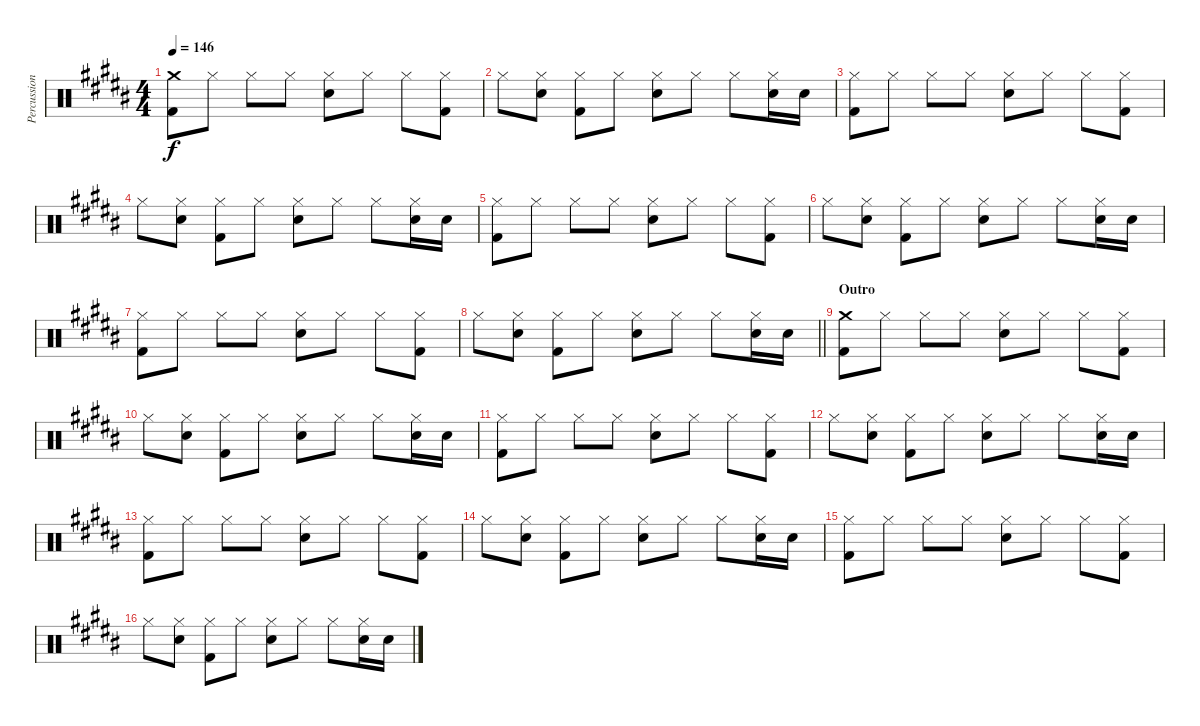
\track ("Percussion" "Percussion") {instrument percussion}
\staff {score}
\articulation defaults
\ts (4 4)
\tempo 146
\clef neutral
\ks b
("Crash medium (hit)" "Kick (hit) 2").8{dy f} "Hi-Hat (closed)".8 "Hi-Hat (closed)".8 "Hi-Hat (closed)".8 ("Hi-Hat (closed)" "Snare (hit) 2").8 "Hi-Hat (closed)".8 "Hi-Hat (closed)".8 ("Hi-Hat (closed)" "Kick (hit) 2").8 |
"Hi-Hat (closed)".8 ("Hi-Hat (closed)" "Snare (hit) 2").8 ("Hi-Hat (closed)" "Kick (hit) 2").8 "Hi-Hat (closed)".8 ("Hi-Hat (closed)" "Snare (hit) 2").8 "Hi-Hat (closed)".8 "Hi-Hat (closed)".8 ("Hi-Hat (closed)" "Snare (hit) 2").16 "Snare (hit) 2".16 |
("Hi-Hat (closed)" "Kick (hit) 2").8 "Hi-Hat (closed)".8 "Hi-Hat (closed)".8 "Hi-Hat (closed)".8 ("Hi-Hat (closed)" "Snare (hit) 2").8 "Hi-Hat (closed)".8 "Hi-Hat (closed)".8 ("Hi-Hat (closed)" "Kick (hit) 2").8 |
"Hi-Hat (closed)".8 ("Hi-Hat (closed)" "Snare (hit) 2").8 ("Hi-Hat (closed)" "Kick (hit) 2").8 "Hi-Hat (closed)".8 ("Hi-Hat (closed)" "Snare (hit) 2").8 "Hi-Hat (closed)".8 "Hi-Hat (closed)".8 ("Hi-Hat (closed)" "Snare (hit) 2").16 "Snare (hit) 2".16 |
("Hi-Hat (closed)" "Kick (hit) 2").8 "Hi-Hat (closed)".8 "Hi-Hat (closed)".8 "Hi-Hat (closed)".8 ("Hi-Hat (closed)" "Snare (hit) 2").8 "Hi-Hat (closed)".8 "Hi-Hat (closed)".8 ("Hi-Hat (closed)" "Kick (hit) 2").8 |
"Hi-Hat (closed)".8 ("Hi-Hat (closed)" "Snare (hit) 2").8 ("Hi-Hat (closed)" "Kick (hit) 2").8 "Hi-Hat (closed)".8 ("Hi-Hat (closed)" "Snare (hit) 2").8 "Hi-Hat (closed)".8 "Hi-Hat (closed)".8 ("Hi-Hat (closed)" "Snare (hit) 2").16 "Snare (hit) 2".16 |
("Hi-Hat (closed)" "Kick (hit) 2").8 "Hi-Hat (closed)".8 "Hi-Hat (closed)".8 "Hi-Hat (closed)".8 ("Hi-Hat (closed)" "Snare (hit) 2").8 "Hi-Hat (closed)".8 "Hi-Hat (closed)".8 ("Hi-Hat (closed)" "Kick (hit) 2").8 |
\barLineRight lightlight "Hi-Hat (closed)".8
("Hi-Hat (closed)" "Snare (hit) 2").8 ("Hi-Hat (closed)" "Kick (hit) 2").8 "Hi-Hat (closed)".8 ("Hi-Hat (closed)" "Snare (hit) 2").8 "Hi-Hat (closed)".8 "Hi-Hat (closed)".8 ("Hi-Hat (closed)" "Snare (hit) 2").16 "Snare (hit) 2".16 |
\section ("" "Outro")
("Crash medium (hit)" "Kick (hit) 2").8 "Hi-Hat (closed)".8 "Hi-Hat (closed)".8 "Hi-Hat (closed)".8 ("Hi-Hat (closed)" "Snare (hit) 2").8 "Hi-Hat (closed)".8 "Hi-Hat (closed)".8 ("Hi-Hat (closed)" "Kick (hit) 2").8 |
"Hi-Hat (closed)".8 ("Hi-Hat (closed)" "Snare (hit) 2").8 ("Hi-Hat (closed)" "Kick (hit) 2").8 "Hi-Hat (closed)".8 ("Hi-Hat (closed)" "Snare (hit) 2").8 "Hi-Hat (closed)".8 "Hi-Hat (closed)".8 ("Hi-Hat (closed)" "Snare (hit) 2").16 "Snare (hit) 2".16 |
("Hi-Hat (closed)" "Kick (hit) 2").8 "Hi-Hat (closed)".8 "Hi-Hat (closed)".8 "Hi-Hat (closed)".8 ("Hi-Hat (closed)" "Snare (hit) 2").8 "Hi-Hat (closed)".8 "Hi-Hat (closed)".8 ("Hi-Hat (closed)" "Kick (hit) 2").8 |
"Hi-Hat (closed)".8 ("Hi-Hat (closed)" "Snare (hit) 2").8 ("Hi-Hat (closed)" "Kick (hit) 2").8 "Hi-Hat (closed)".8 ("Hi-Hat (closed)" "Snare (hit) 2").8 "Hi-Hat (closed)".8 "Hi-Hat (closed)".8 ("Hi-Hat (closed)" "Snare (hit) 2").16 "Snare (hit) 2".16 |
("Hi-Hat (closed)" "Kick (hit) 2").8 "Hi-Hat (closed)".8 "Hi-Hat (closed)".8 "Hi-Hat (closed)".8 ("Hi-Hat (closed)" "Snare (hit) 2").8 "Hi-Hat (closed)".8 "Hi-Hat (closed)".8 ("Hi-Hat (closed)" "Kick (hit) 2").8 |
"Hi-Hat (closed)".8 ("Hi-Hat (closed)" "Snare (hit) 2").8 ("Hi-Hat (closed)" "Kick (hit) 2").8 "Hi-Hat (closed)".8 ("Hi-Hat (closed)" "Snare (hit) 2").8 "Hi-Hat (closed)".8 "Hi-Hat (closed)".8 ("Hi-Hat (closed)" "Snare (hit) 2").16 "Snare (hit) 2".16 |
("Hi-Hat (closed)" "Kick (hit) 2").8 "Hi-Hat (closed)".8 "Hi-Hat (closed)".8 "Hi-Hat (closed)".8 ("Hi-Hat (closed)" "Snare (hit) 2").8 "Hi-Hat (closed)".8 "Hi-Hat (closed)".8 ("Hi-Hat (closed)" "Kick (hit) 2").8 |
"Hi-Hat (closed)".8 ("Hi-Hat (closed)" "Snare (hit) 2").8 ("Hi-Hat (closed)" "Kick (hit) 2").8 "Hi-Hat (closed)".8 ("Hi-Hat (closed)" "Snare (hit) 2").8 "Hi-Hat (closed)".8 "Hi-Hat (closed)".8 ("Hi-Hat (closed)" "Snare (hit) 2").16 "Snare (hit) 2".16
